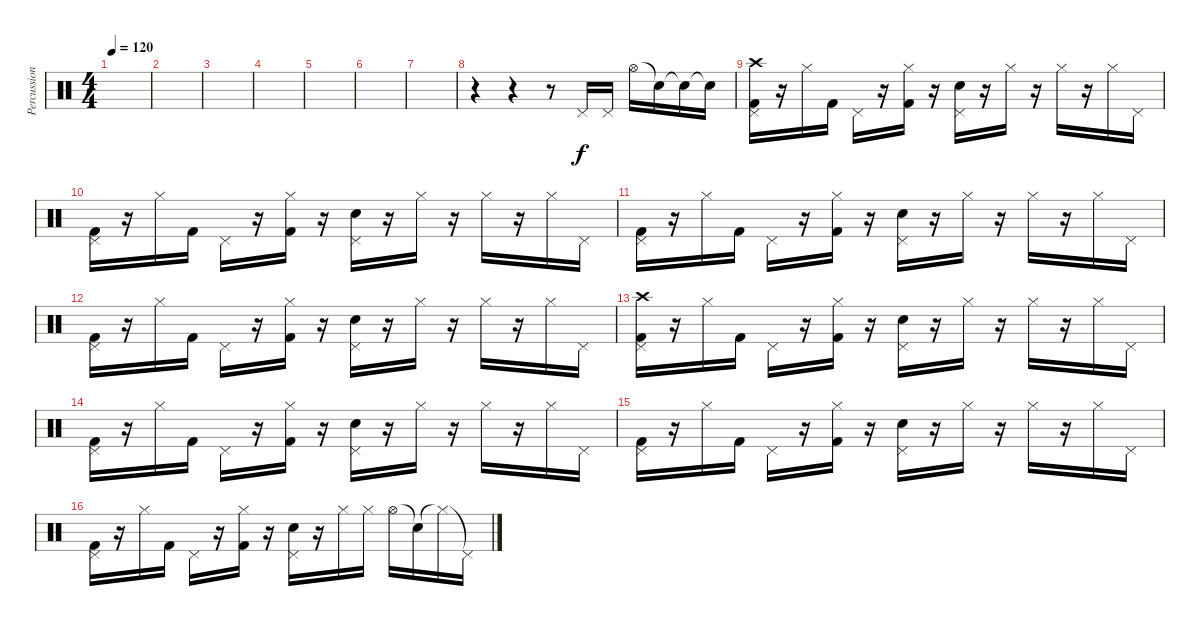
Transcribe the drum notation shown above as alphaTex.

\track ("Percussion" "Percussion") {instrument percussion}
\staff {score}
\articulation defaults
\ts (4 4)
\tempo 120
\clef neutral
\ks c
|
|
|
|
|
|
|
r.4 r.4 r.8 "Pedal Hi-Hat (hit)".16 "Pedal Hi-Hat (hit)".16 "Hi-Hat (open)".16 "Snare (hit)"{t}.16 "Snare (hit)"{t}.16 "Snare (hit)"{t}.16 |
("Pedal Hi-Hat (hit)" "Crash high (hit)" "Kick (hit) 2").16 r.16 "Hi-Hat (closed)".16 "Kick (hit) 2".16 "Pedal Hi-Hat (hit)".16 r.16 ("Hi-Hat (closed)" "Kick (hit) 2").16 r.16 ("Pedal Hi-Hat (hit)" "Electric Snare (hit)").16 r.16 "Hi-Hat (closed)".16 r.16 "Hi-Hat (closed)".16 r.16 "Hi-Hat (closed)".16 "Pedal Hi-Hat (hit)".16 |
("Pedal Hi-Hat (hit)" "Kick (hit) 2").16 r.16 "Hi-Hat (closed)".16 "Kick (hit) 2".16 "Pedal Hi-Hat (hit)".16 r.16 ("Hi-Hat (closed)" "Kick (hit) 2").16 r.16 ("Pedal Hi-Hat (hit)" "Electric Snare (hit)").16 r.16 "Hi-Hat (closed)".16 r.16 "Hi-Hat (closed)".16 r.16 "Hi-Hat (closed)".16 "Pedal Hi-Hat (hit)".16 |
("Pedal Hi-Hat (hit)" "Kick (hit) 2").16 r.16 "Hi-Hat (closed)".16 "Kick (hit) 2".16 "Pedal Hi-Hat (hit)".16 r.16 ("Hi-Hat (closed)" "Kick (hit) 2").16 r.16 ("Pedal Hi-Hat (hit)" "Electric Snare (hit)").16 r.16 "Hi-Hat (closed)".16 r.16 "Hi-Hat (closed)".16 r.16 "Hi-Hat (closed)".16 "Pedal Hi-Hat (hit)".16 |
("Pedal Hi-Hat (hit)" "Kick (hit) 2").16 r.16 "Hi-Hat (closed)".16 "Kick (hit) 2".16 "Pedal Hi-Hat (hit)".16 r.16 ("Hi-Hat (closed)" "Kick (hit) 2").16 r.16 ("Pedal Hi-Hat (hit)" "Electric Snare (hit)").16 r.16 "Hi-Hat (closed)".16 r.16 "Hi-Hat (closed)".16 r.16 "Hi-Hat (closed)".16 "Pedal Hi-Hat (hit)".16 |
("Pedal Hi-Hat (hit)" "Crash high (hit)" "Kick (hit) 2").16 r.16 "Hi-Hat (closed)".16 "Kick (hit) 2".16 "Pedal Hi-Hat (hit)".16 r.16 ("Hi-Hat (closed)" "Kick (hit) 2").16 r.16 ("Pedal Hi-Hat (hit)" "Electric Snare (hit)").16 r.16 "Hi-Hat (closed)".16 r.16 "Hi-Hat (closed)".16 r.16 "Hi-Hat (closed)".16 "Pedal Hi-Hat (hit)".16 |
("Pedal Hi-Hat (hit)" "Kick (hit) 2").16 r.16 "Hi-Hat (closed)".16 "Kick (hit) 2".16 "Pedal Hi-Hat (hit)".16 r.16 ("Hi-Hat (closed)" "Kick (hit) 2").16 r.16 ("Pedal Hi-Hat (hit)" "Electric Snare (hit)").16 r.16 "Hi-Hat (closed)".16 r.16 "Hi-Hat (closed)".16 r.16 "Hi-Hat (closed)".16 "Pedal Hi-Hat (hit)".16 |
("Pedal Hi-Hat (hit)" "Kick (hit) 2").16 r.16 "Hi-Hat (closed)".16 "Kick (hit) 2".16 "Pedal Hi-Hat (hit)".16 r.16 ("Hi-Hat (closed)" "Kick (hit) 2").16 r.16 ("Pedal Hi-Hat (hit)" "Electric Snare (hit)").16 r.16 "Hi-Hat (closed)".16 r.16 "Hi-Hat (closed)".16 r.16 "Hi-Hat (closed)".16 "Pedal Hi-Hat (hit)".16 |
("Pedal Hi-Hat (hit)" "Kick (hit) 2").16 r.16 "Hi-Hat (closed)".16 "Kick (hit) 2".16 "Pedal Hi-Hat (hit)".16 r.16 ("Hi-Hat (closed)" "Kick (hit) 2").16 r.16 ("Pedal Hi-Hat (hit)" "Electric Snare (hit)").16 r.16 "Hi-Hat (closed)".16 "Hi-Hat (closed)".16 "Hi-Hat (open)".16 "Snare (hit)"{t}.16 "Hi-Hat (closed)"{t}.16 "Pedal Hi-Hat (hit)"{t}.16
